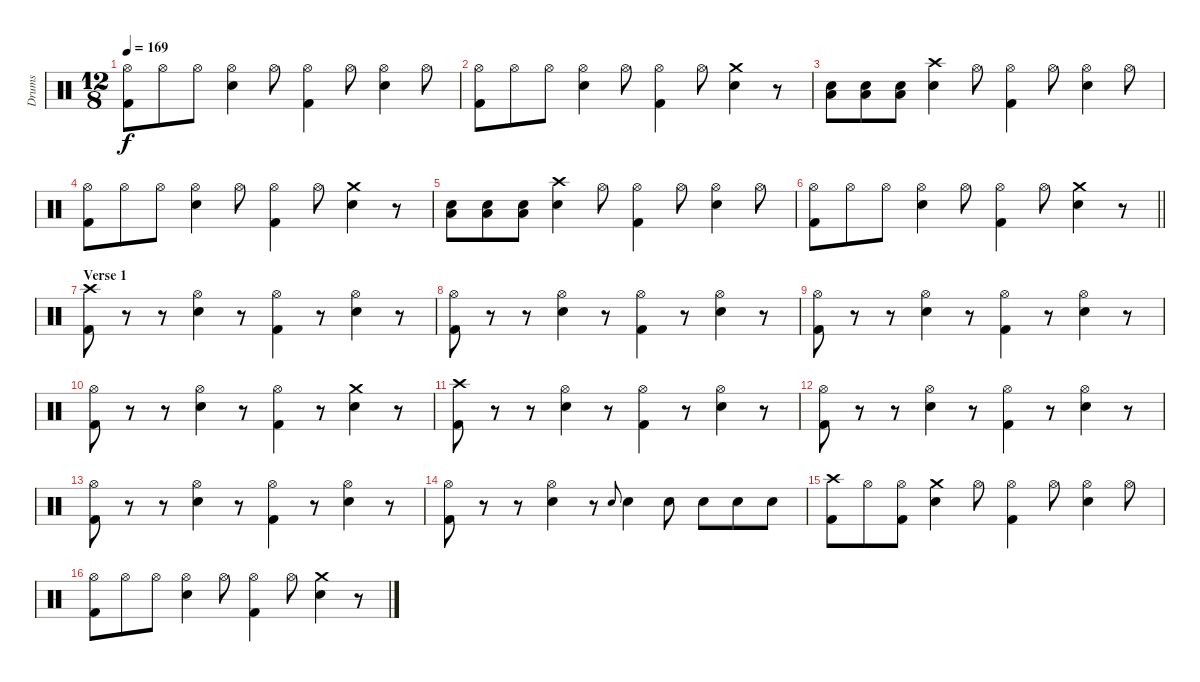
\track ("Drums" "Drums") {instrument percussion}
\staff {score}
\articulation defaults
\ts (12 8)
\tempo 169
\clef neutral
\ks c
("Kick (hit) 2" "Hi-Hat (open)").8{dy f} "Hi-Hat (open)".8 "Hi-Hat (open)".8 ("Snare (hit) 2" "Hi-Hat (open)").4 "Hi-Hat (open)".8 ("Kick (hit) 2" "Hi-Hat (open)").4 "Hi-Hat (open)".8 ("Snare (hit) 2" "Hi-Hat (open)").4 "Hi-Hat (open)".8 |
("Kick (hit) 2" "Hi-Hat (open)").8 "Hi-Hat (open)".8 "Hi-Hat (open)".8 ("Snare (hit) 2" "Hi-Hat (open)").4 "Hi-Hat (open)".8 ("Kick (hit) 2" "Hi-Hat (open)").4 "Hi-Hat (open)".8 ("Snare (hit) 2" "Crash medium (hit)").4 r.8 |
("Snare (hit) 2" "Low Tom (hit)").8 ("Snare (hit) 2" "Low Tom (hit)").8 ("Snare (hit) 2" "Low Tom (hit)").8 ("Snare (hit) 2" "Crash high (hit)").4 "Hi-Hat (open)".8 ("Kick (hit) 2" "Hi-Hat (open)").4 "Hi-Hat (open)".8 ("Snare (hit) 2" "Hi-Hat (open)").4 "Hi-Hat (open)".8 |
("Kick (hit) 2" "Hi-Hat (open)").8 "Hi-Hat (open)".8 "Hi-Hat (open)".8 ("Snare (hit) 2" "Hi-Hat (open)").4 "Hi-Hat (open)".8 ("Kick (hit) 2" "Hi-Hat (open)").4 "Hi-Hat (open)".8 ("Snare (hit) 2" "Crash medium (hit)").4 r.8 |
("Snare (hit) 2" "Low Tom (hit)").8 ("Snare (hit) 2" "Low Tom (hit)").8 ("Snare (hit) 2" "Low Tom (hit)").8 ("Snare (hit) 2" "Crash high (hit)").4 "Hi-Hat (open)".8 ("Kick (hit) 2" "Hi-Hat (open)").4 "Hi-Hat (open)".8 ("Snare (hit) 2" "Hi-Hat (open)").4 "Hi-Hat (open)".8 |
\barLineRight lightlight
("Kick (hit) 2" "Hi-Hat (open)").8 "Hi-Hat (open)".8 "Hi-Hat (open)".8 ("Snare (hit) 2" "Hi-Hat (open)").4 "Hi-Hat (open)".8 ("Kick (hit) 2" "Hi-Hat (open)").4 "Hi-Hat (open)".8 ("Snare (hit) 2" "Crash medium (hit)").4 r.8 |
\section ("" "Verse 1")
("Kick (hit) 2" "Crash high (hit)").8 r.8 r.8 ("Snare (hit) 2" "Hi-Hat (open)").4 r.8 ("Kick (hit) 2" "Hi-Hat (open)").4 r.8 ("Snare (hit) 2" "Hi-Hat (open)").4 r.8 |
("Kick (hit) 2" "Hi-Hat (open)").8 r.8 r.8 ("Snare (hit) 2" "Hi-Hat (open)").4 r.8 ("Kick (hit) 2" "Hi-Hat (open)").4 r.8 ("Snare (hit) 2" "Hi-Hat (open)").4 r.8 |
("Kick (hit) 2" "Hi-Hat (open)").8 r.8 r.8 ("Snare (hit) 2" "Hi-Hat (open)").4 r.8 ("Kick (hit) 2" "Hi-Hat (open)").4 r.8 ("Snare (hit) 2" "Hi-Hat (open)").4 r.8 |
("Kick (hit) 2" "Hi-Hat (open)").8 r.8 r.8 ("Snare (hit) 2" "Hi-Hat (open)").4 r.8 ("Kick (hit) 2" "Hi-Hat (open)").4 r.8 ("Snare (hit) 2" "Crash medium (hit)").4 r.8 |
("Kick (hit) 2" "Crash high (hit)").8 r.8 r.8 ("Snare (hit) 2" "Hi-Hat (open)").4 r.8 ("Kick (hit) 2" "Hi-Hat (open)").4 r.8 ("Snare (hit) 2" "Hi-Hat (open)").4 r.8 |
("Kick (hit) 2" "Hi-Hat (open)").8 r.8 r.8 ("Snare (hit) 2" "Hi-Hat (open)").4 r.8 ("Kick (hit) 2" "Hi-Hat (open)").4 r.8 ("Snare (hit) 2" "Hi-Hat (open)").4 r.8 |
("Kick (hit) 2" "Hi-Hat (open)").8 r.8 r.8 ("Snare (hit) 2" "Hi-Hat (open)").4 r.8 ("Kick (hit) 2" "Hi-Hat (open)").4 r.8 ("Snare (hit) 2" "Hi-Hat (open)").4 r.8 |
("Kick (hit) 2" "Hi-Hat (open)").8 r.8 r.8 ("Snare (hit) 2" "Hi-Hat (open)").4 r.8 "Snare (hit) 2".8{gr onbeat} "Snare (hit) 2".4 "Snare (hit) 2".8 "Snare (hit) 2".8 "Snare (hit) 2".8 "Snare (hit) 2".8 |
("Kick (hit) 2" "Crash high (hit)").8 "Hi-Hat (open)".8 ("Kick (hit) 2" "Hi-Hat (open)").8 ("Snare (hit) 2" "Crash medium (hit)").4 "Hi-Hat (open)".8 ("Kick (hit) 2" "Hi-Hat (open)").4 "Hi-Hat (open)".8 ("Snare (hit) 2" "Hi-Hat (open)").4 "Hi-Hat (open)".8 |
("Kick (hit) 2" "Hi-Hat (open)").8 "Hi-Hat (open)".8 "Hi-Hat (open)".8 ("Snare (hit) 2" "Hi-Hat (open)").4 "Hi-Hat (open)".8 ("Kick (hit) 2" "Hi-Hat (open)").4 "Hi-Hat (open)".8 ("Snare (hit) 2" "Crash medium (hit)").4 r.8
